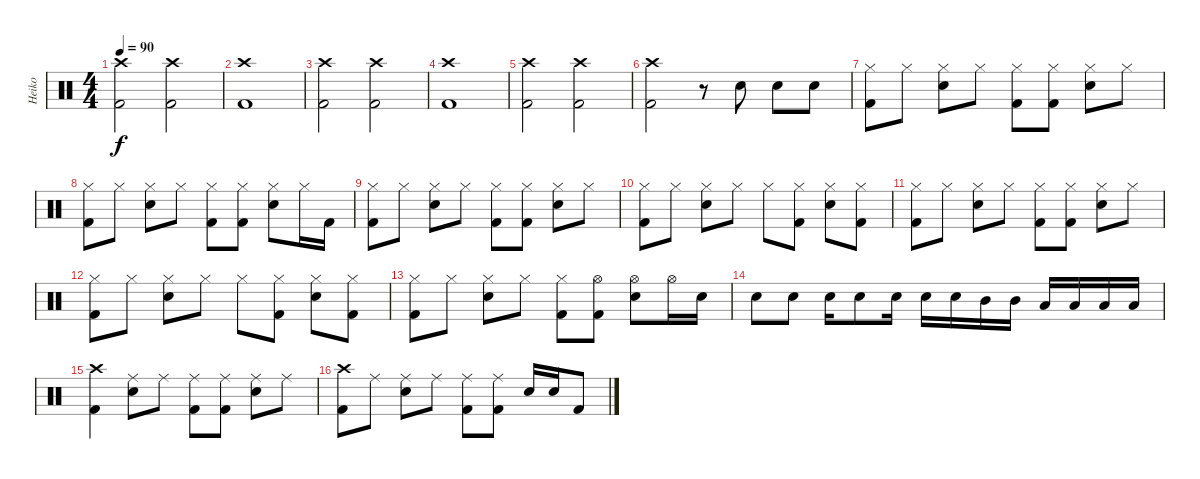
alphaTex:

\track ("Heiko" "Heiko") {instrument percussion}
\staff {score}
\articulation defaults
\ts (4 4)
\tempo 90
\clef neutral
\ks c
("Crash high (hit)" "Kick (hit) 2").2{dy f} ("Crash high (hit)" "Kick (hit) 2").2 |
("Crash high (hit)" "Kick (hit) 2").1 |
("Crash high (hit)" "Kick (hit) 2").2 ("Crash high (hit)" "Kick (hit) 2").2 |
("Crash high (hit)" "Kick (hit) 2").1 |
("Crash high (hit)" "Kick (hit) 2").2 ("Crash high (hit)" "Kick (hit) 2").2 |
("Crash high (hit)" "Kick (hit) 2").2 r.8 "Electric Snare (hit)".8 "Electric Snare (hit)".8 "Electric Snare (hit)".8 |
("Hi-Hat (closed)" "Kick (hit) 2").8 "Hi-Hat (closed)".8 ("Hi-Hat (closed)" "Electric Snare (hit)").8 "Hi-Hat (closed)".8 ("Hi-Hat (closed)" "Kick (hit) 2").8 ("Hi-Hat (closed)" "Kick (hit) 2").8 ("Hi-Hat (closed)" "Electric Snare (hit)").8 "Hi-Hat (closed)".8 |
("Hi-Hat (closed)" "Kick (hit) 2").8 "Hi-Hat (closed)".8 ("Hi-Hat (closed)" "Electric Snare (hit)").8 "Hi-Hat (closed)".8 ("Hi-Hat (closed)" "Kick (hit) 2").8 ("Hi-Hat (closed)" "Kick (hit) 2").8 ("Hi-Hat (closed)" "Electric Snare (hit)").8 "Hi-Hat (closed)".16 "Kick (hit) 2".16 |
("Hi-Hat (closed)" "Kick (hit) 2").8 "Hi-Hat (closed)".8 ("Hi-Hat (closed)" "Electric Snare (hit)").8 "Hi-Hat (closed)".8 ("Hi-Hat (closed)" "Kick (hit) 2").8 ("Hi-Hat (closed)" "Kick (hit) 2").8 ("Hi-Hat (closed)" "Electric Snare (hit)").8 "Hi-Hat (closed)".8 |
("Hi-Hat (closed)" "Kick (hit) 2").8 "Hi-Hat (closed)".8 ("Hi-Hat (closed)" "Electric Snare (hit)").8 "Hi-Hat (closed)".8 "Hi-Hat (closed)".8 ("Hi-Hat (closed)" "Kick (hit) 2").8 ("Hi-Hat (closed)" "Electric Snare (hit)").8 ("Hi-Hat (closed)" "Kick (hit) 2").8 |
("Hi-Hat (closed)" "Kick (hit) 2").8 "Hi-Hat (closed)".8 ("Hi-Hat (closed)" "Electric Snare (hit)").8 "Hi-Hat (closed)".8 ("Hi-Hat (closed)" "Kick (hit) 2").8 ("Hi-Hat (closed)" "Kick (hit) 2").8 ("Hi-Hat (closed)" "Electric Snare (hit)").8 "Hi-Hat (closed)".8 |
("Hi-Hat (closed)" "Kick (hit) 2").8 "Hi-Hat (closed)".8 ("Hi-Hat (closed)" "Electric Snare (hit)").8 "Hi-Hat (closed)".8 "Hi-Hat (closed)".8 ("Hi-Hat (closed)" "Kick (hit) 2").8 ("Hi-Hat (closed)" "Electric Snare (hit)").8 ("Hi-Hat (closed)" "Kick (hit) 2").8 |
("Hi-Hat (closed)" "Kick (hit) 2").8 "Hi-Hat (closed)".8 ("Hi-Hat (closed)" "Electric Snare (hit)").8 "Hi-Hat (closed)".8 ("Hi-Hat (closed)" "Kick (hit) 2").8 ("Hi-Hat (open)" "Kick (hit) 2").8 ("Hi-Hat (open)" "Electric Snare (hit)").8 "Hi-Hat (open)".16 "Electric Snare (hit)".16 |
"Electric Snare (hit)".8 "Electric Snare (hit)".8 "Electric Snare (hit)".16 "Electric Snare (hit)".8 "Electric Snare (hit)".16 "Electric Snare (hit)".16 "Electric Snare (hit)".16 "Mid Tom (hit)".16 "Mid Tom (hit)".16 "Low Tom (hit)".16 "Low Tom (hit)".16 "Low Tom (hit)".16 "Low Tom (hit)".16 |
("Crash high (hit)" "Kick (hit) 2").4 ("Ride (middle)" "Electric Snare (hit)").8 "Ride (middle)".8 ("Ride (middle)" "Kick (hit) 2").8 ("Ride (middle)" "Kick (hit) 2").8 ("Ride (middle)" "Electric Snare (hit)").8 "Ride (middle)".8 |
("Crash high (hit)" "Kick (hit) 2").8 "Ride (middle)".8 ("Ride (middle)" "Electric Snare (hit)").8 "Ride (middle)".8 ("Ride (middle)" "Kick (hit) 2").8 ("Ride (middle)" "Kick (hit) 2").8 "Electric Snare (hit)".16 "Electric Snare (hit)".16 "Kick (hit) 2".8
